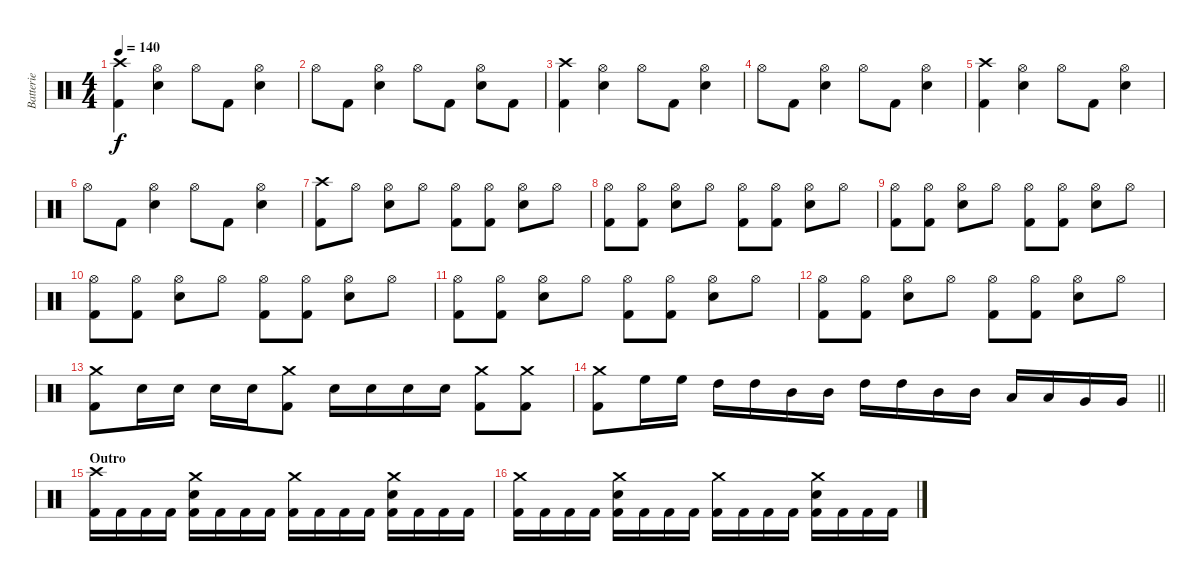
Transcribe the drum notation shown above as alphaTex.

\track ("Batterie" "Batterie") {instrument percussion}
\staff {score}
\articulation defaults
\ts (4 4)
\tempo 140
\clef neutral
\ks c
("Crash high (hit)" "Kick (hit) 2").4{dy f} ("Hi-Hat (open)" "Electric Snare (hit)").4 "Hi-Hat (open)".8 "Kick (hit) 2".8 ("Hi-Hat (open)" "Electric Snare (hit)").4 |
"Hi-Hat (open)".8 "Kick (hit) 2".8 ("Hi-Hat (open)" "Electric Snare (hit)").4 "Hi-Hat (open)".8 "Kick (hit) 2".8 ("Hi-Hat (open)" "Electric Snare (hit)").8 "Kick (hit) 2".8 |
("Crash high (hit)" "Kick (hit) 2").4 ("Hi-Hat (open)" "Electric Snare (hit)").4 "Hi-Hat (open)".8 "Kick (hit) 2".8 ("Hi-Hat (open)" "Electric Snare (hit)").4 |
"Hi-Hat (open)".8 "Kick (hit) 2".8 ("Hi-Hat (open)" "Electric Snare (hit)").4 "Hi-Hat (open)".8 "Kick (hit) 2".8 ("Hi-Hat (open)" "Electric Snare (hit)").4 |
("Crash high (hit)" "Kick (hit) 2").4 ("Hi-Hat (open)" "Electric Snare (hit)").4 "Hi-Hat (open)".8 "Kick (hit) 2".8 ("Hi-Hat (open)" "Electric Snare (hit)").4 |
"Hi-Hat (open)".8 "Kick (hit) 2".8 ("Hi-Hat (open)" "Electric Snare (hit)").4 "Hi-Hat (open)".8 "Kick (hit) 2".8 ("Hi-Hat (open)" "Electric Snare (hit)").4 |
("Crash high (hit)" "Kick (hit) 2").8 "Hi-Hat (open)".8 ("Hi-Hat (open)" "Electric Snare (hit)").8 "Hi-Hat (open)".8 ("Hi-Hat (open)" "Kick (hit) 2").8 ("Hi-Hat (open)" "Kick (hit) 2").8 ("Hi-Hat (open)" "Electric Snare (hit)").8 "Hi-Hat (open)".8 |
("Hi-Hat (open)" "Kick (hit) 2").8 ("Hi-Hat (open)" "Kick (hit) 2").8 ("Hi-Hat (open)" "Electric Snare (hit)").8 "Hi-Hat (open)".8 ("Hi-Hat (open)" "Kick (hit) 2").8 ("Hi-Hat (open)" "Kick (hit) 2").8 ("Hi-Hat (open)" "Electric Snare (hit)").8 "Hi-Hat (open)".8 |
("Hi-Hat (open)" "Kick (hit) 2").8 ("Hi-Hat (open)" "Kick (hit) 2").8 ("Hi-Hat (open)" "Electric Snare (hit)").8 "Hi-Hat (open)".8 ("Hi-Hat (open)" "Kick (hit) 2").8 ("Hi-Hat (open)" "Kick (hit) 2").8 ("Hi-Hat (open)" "Electric Snare (hit)").8 "Hi-Hat (open)".8 |
("Hi-Hat (open)" "Kick (hit) 2").8 ("Hi-Hat (open)" "Kick (hit) 2").8 ("Hi-Hat (open)" "Electric Snare (hit)").8 "Hi-Hat (open)".8 ("Hi-Hat (open)" "Kick (hit) 2").8 ("Hi-Hat (open)" "Kick (hit) 2").8 ("Hi-Hat (open)" "Electric Snare (hit)").8 "Hi-Hat (open)".8 |
("Hi-Hat (open)" "Kick (hit) 2").8 ("Hi-Hat (open)" "Kick (hit) 2").8 ("Hi-Hat (open)" "Electric Snare (hit)").8 "Hi-Hat (open)".8 ("Hi-Hat (open)" "Kick (hit) 2").8 ("Hi-Hat (open)" "Kick (hit) 2").8 ("Hi-Hat (open)" "Electric Snare (hit)").8 "Hi-Hat (open)".8 |
("Hi-Hat (open)" "Kick (hit) 2").8 ("Hi-Hat (open)" "Kick (hit) 2").8 ("Hi-Hat (open)" "Electric Snare (hit)").8 "Hi-Hat (open)".8 ("Hi-Hat (open)" "Kick (hit) 2").8 ("Hi-Hat (open)" "Kick (hit) 2").8 ("Hi-Hat (open)" "Electric Snare (hit)").8 "Hi-Hat (open)".8 |
("Crash medium (hit)" "Kick (hit) 2").8 "Electric Snare (hit)".16 "Electric Snare (hit)".16 "Electric Snare (hit)".16 "Electric Snare (hit)".16 ("Crash medium (hit)" "Kick (hit) 2").8 "Electric Snare (hit)".16 "Electric Snare (hit)".16 "Electric Snare (hit)".16 "Electric Snare (hit)".16 ("Crash medium (hit)" "Kick (hit) 2").8 ("Crash medium (hit)" "Kick (hit) 2").8 |
\barLineRight lightlight
("Crash medium (hit)" "Kick (hit) 2").8 "High Floor Tom (hit)".16 "High Floor Tom (hit)".16 "High Tom (hit)".16 "High Tom (hit)".16 "Mid Tom (hit)".16 "Mid Tom (hit)".16 "High Tom (hit)".16 "High Tom (hit)".16 "Mid Tom (hit)".16 "Mid Tom (hit)".16 "Low Tom (hit)".16 "Low Tom (hit)".16 "Very Low Tom (hit)".16 "Very Low Tom (hit)".16 |
\section ("" "Outro")
("Crash high (hit)" "Kick (hit) 2").16 "Kick (hit) 2".16 "Kick (hit) 2".16 "Kick (hit) 2".16 ("Crash medium (hit)" "Electric Snare (hit)" "Kick (hit) 2").16 "Kick (hit) 2".16 "Kick (hit) 2".16 "Kick (hit) 2".16 ("Crash medium (hit)" "Kick (hit) 2").16 "Kick (hit) 2".16 "Kick (hit) 2".16 "Kick (hit) 2".16 ("Crash medium (hit)" "Electric Snare (hit)" "Kick (hit) 2").16 "Kick (hit) 2".16 "Kick (hit) 2".16 "Kick (hit) 2".16 |
("Crash medium (hit)" "Kick (hit) 2").16 "Kick (hit) 2".16 "Kick (hit) 2".16 "Kick (hit) 2".16 ("Crash medium (hit)" "Electric Snare (hit)" "Kick (hit) 2").16 "Kick (hit) 2".16 "Kick (hit) 2".16 "Kick (hit) 2".16 ("Crash medium (hit)" "Kick (hit) 2").16 "Kick (hit) 2".16 "Kick (hit) 2".16 "Kick (hit) 2".16 ("Crash medium (hit)" "Electric Snare (hit)" "Kick (hit) 2").16 "Kick (hit) 2".16 "Kick (hit) 2".16 "Kick (hit) 2".16
